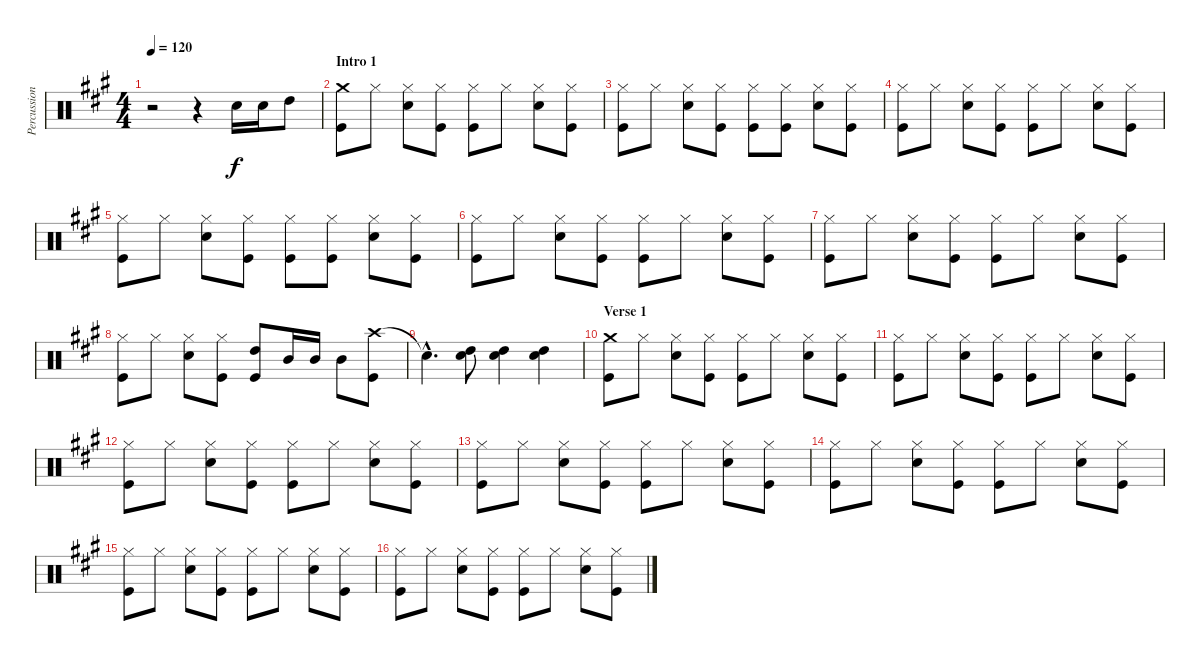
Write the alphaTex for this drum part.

\track ("Percussion" "Percussion") {instrument percussion}
\staff {score}
\articulation defaults
\ts (4 4)
\tempo 120
\clef neutral
\ks a
r.2{dy f} r.4 "Snare (hit) 2".16 "Snare (hit) 2".16 "High Tom (hit)".8 |
\section ("" "Intro 1")
("Crash medium (hit)" "Kick (hit)").8 "Hi-Hat (closed)".8 ("Hi-Hat (closed)" "Snare (hit) 2").8 ("Hi-Hat (closed)" "Kick (hit)").8 ("Hi-Hat (closed)" "Kick (hit)").8 "Hi-Hat (closed)".8 ("Hi-Hat (closed)" "Snare (hit) 2").8 ("Hi-Hat (closed)" "Kick (hit)").8 |
("Hi-Hat (closed)" "Kick (hit)").8 "Hi-Hat (closed)".8 ("Hi-Hat (closed)" "Snare (hit) 2").8 ("Hi-Hat (closed)" "Kick (hit)").8 ("Hi-Hat (closed)" "Kick (hit)").8 ("Hi-Hat (closed)" "Kick (hit)").8 ("Hi-Hat (closed)" "Snare (hit) 2").8 ("Hi-Hat (closed)" "Kick (hit)").8 |
("Hi-Hat (closed)" "Kick (hit)").8 "Hi-Hat (closed)".8 ("Hi-Hat (closed)" "Snare (hit) 2").8 ("Hi-Hat (closed)" "Kick (hit)").8 ("Hi-Hat (closed)" "Kick (hit)").8 "Hi-Hat (closed)".8 ("Hi-Hat (closed)" "Snare (hit) 2").8 ("Hi-Hat (closed)" "Kick (hit)").8 |
("Hi-Hat (closed)" "Kick (hit)").8 "Hi-Hat (closed)".8 ("Hi-Hat (closed)" "Snare (hit) 2").8 ("Hi-Hat (closed)" "Kick (hit)").8 ("Hi-Hat (closed)" "Kick (hit)").8 ("Hi-Hat (closed)" "Kick (hit)").8 ("Hi-Hat (closed)" "Snare (hit) 2").8 ("Hi-Hat (closed)" "Kick (hit)").8 |
("Hi-Hat (closed)" "Kick (hit)").8 "Hi-Hat (closed)".8 ("Hi-Hat (closed)" "Snare (hit) 2").8 ("Hi-Hat (closed)" "Kick (hit)").8 ("Hi-Hat (closed)" "Kick (hit)").8 "Hi-Hat (closed)".8 ("Hi-Hat (closed)" "Snare (hit) 2").8 ("Hi-Hat (closed)" "Kick (hit)").8 |
("Hi-Hat (closed)" "Kick (hit)").8 "Hi-Hat (closed)".8 ("Hi-Hat (closed)" "Snare (hit) 2").8 ("Hi-Hat (closed)" "Kick (hit)").8 ("Hi-Hat (closed)" "Kick (hit)").8 "Hi-Hat (closed)".8 ("Hi-Hat (closed)" "Snare (hit) 2").8 ("Hi-Hat (closed)" "Kick (hit)").8 |
("Hi-Hat (closed)" "Kick (hit)").8 "Hi-Hat (closed)".8 ("Hi-Hat (closed)" "Snare (hit) 2").8 ("Hi-Hat (closed)" "Kick (hit)").8 ("High Tom (hit)" "Kick (hit)").8 "Mid Tom (hit)".16 "Mid Tom (hit)".16 "Mid Tom (hit)".8 ("Crash high (hit)" "Kick (hit)").8 |
"Snare (hit)"{hac t}.4{d} ("High Tom (hit)" "Snare (hit) 2").8 ("High Tom (hit)" "Snare (hit) 2").4 ("High Tom (hit)" "Snare (hit) 2").4 |
\section ("" "Verse 1")
("Crash medium (hit)" "Kick (hit)").8 "Hi-Hat (closed)".8 ("Hi-Hat (closed)" "Snare (hit) 2").8 ("Hi-Hat (closed)" "Kick (hit)").8 ("Hi-Hat (closed)" "Kick (hit)").8 "Hi-Hat (closed)".8 ("Hi-Hat (closed)" "Snare (hit) 2").8 ("Hi-Hat (closed)" "Kick (hit)").8 |
("Hi-Hat (closed)" "Kick (hit)").8 "Hi-Hat (closed)".8 ("Hi-Hat (closed)" "Snare (hit) 2").8 ("Hi-Hat (closed)" "Kick (hit)").8 ("Hi-Hat (closed)" "Kick (hit)").8 "Hi-Hat (closed)".8 ("Hi-Hat (closed)" "Snare (hit) 2").8 ("Hi-Hat (closed)" "Kick (hit)").8 |
("Hi-Hat (closed)" "Kick (hit)").8 "Hi-Hat (closed)".8 ("Hi-Hat (closed)" "Snare (hit) 2").8 ("Hi-Hat (closed)" "Kick (hit)").8 ("Hi-Hat (closed)" "Kick (hit)").8 "Hi-Hat (closed)".8 ("Hi-Hat (closed)" "Snare (hit) 2").8 ("Hi-Hat (closed)" "Kick (hit)").8 |
("Hi-Hat (closed)" "Kick (hit)").8 "Hi-Hat (closed)".8 ("Hi-Hat (closed)" "Snare (hit) 2").8 ("Hi-Hat (closed)" "Kick (hit)").8 ("Hi-Hat (closed)" "Kick (hit)").8 "Hi-Hat (closed)".8 ("Hi-Hat (closed)" "Snare (hit) 2").8 ("Hi-Hat (closed)" "Kick (hit)").8 |
("Hi-Hat (closed)" "Kick (hit)").8 "Hi-Hat (closed)".8 ("Hi-Hat (closed)" "Snare (hit) 2").8 ("Hi-Hat (closed)" "Kick (hit)").8 ("Hi-Hat (closed)" "Kick (hit)").8 "Hi-Hat (closed)".8 ("Hi-Hat (closed)" "Snare (hit) 2").8 ("Hi-Hat (closed)" "Kick (hit)").8 |
("Hi-Hat (closed)" "Kick (hit)").8 "Hi-Hat (closed)".8 ("Hi-Hat (closed)" "Snare (hit) 2").8 ("Hi-Hat (closed)" "Kick (hit)").8 ("Hi-Hat (closed)" "Kick (hit)").8 "Hi-Hat (closed)".8 ("Hi-Hat (closed)" "Snare (hit) 2").8 ("Hi-Hat (closed)" "Kick (hit)").8 |
("Hi-Hat (closed)" "Kick (hit)").8 "Hi-Hat (closed)".8 ("Hi-Hat (closed)" "Snare (hit) 2").8 ("Hi-Hat (closed)" "Kick (hit)").8 ("Hi-Hat (closed)" "Kick (hit)").8 "Hi-Hat (closed)".8 ("Hi-Hat (closed)" "Snare (hit) 2").8 ("Hi-Hat (closed)" "Kick (hit)").8
